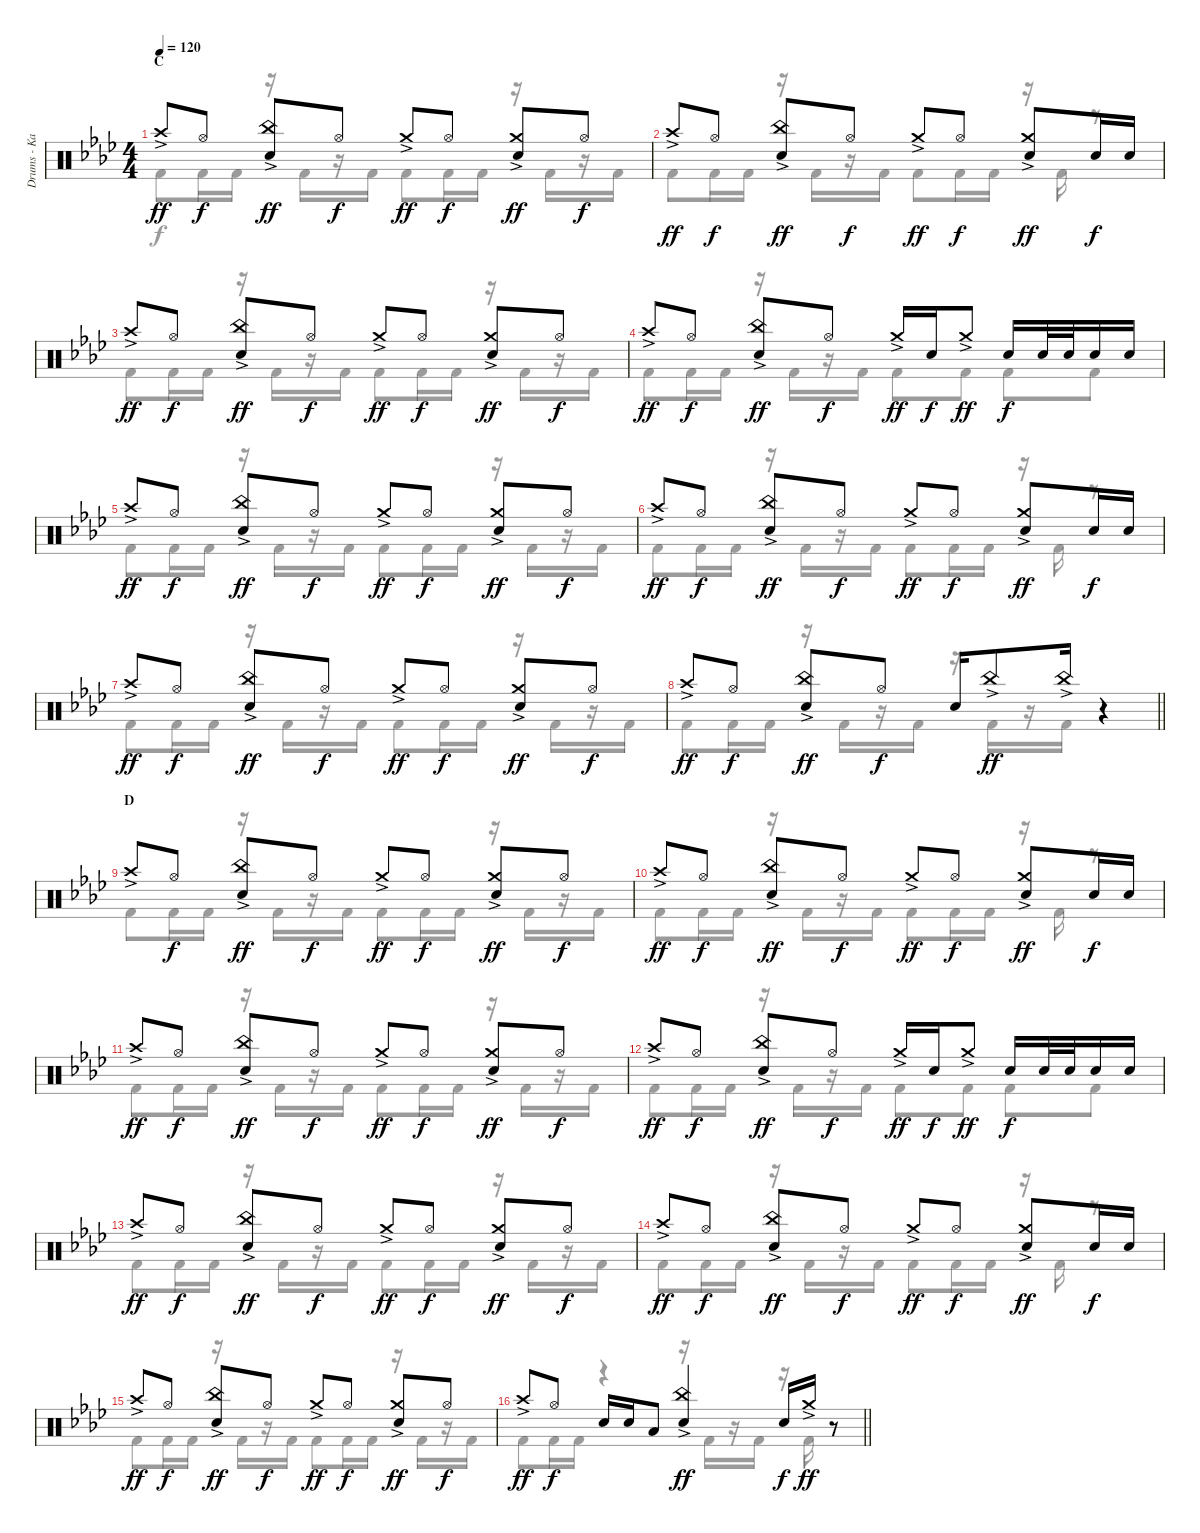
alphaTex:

\track ("Drums - Kai" "Drums - Ka") {instrument percussion}
\staff {score}
\articulation defaults
\voice
\ts (4 4)
\section ("" "C")
\tempo 120
\clef neutral
\ks ab "Crash high (hit)"{ac}.8{dy ff} "Hi-Hat (open)".8{dy f}
("China (hit)"{ac} "Snare (hit) 2").8{dy ff} "Hi-Hat (open)".8{dy f} "Crash medium (hit)"{ac}.8{dy ff} "Hi-Hat (open)".8{dy f} ("Crash medium (hit)"{ac} "Snare (hit) 2").8{dy ff} "Hi-Hat (open)".8{dy f} |
"Crash high (hit)"{ac}.8{dy ff} "Hi-Hat (open)".8{dy f} ("China (hit)"{ac} "Snare (hit) 2").8{dy ff} "Hi-Hat (open)".8{dy f} "Crash medium (hit)"{ac}.8{dy ff} "Hi-Hat (open)".8{dy f} ("Crash medium (hit)"{ac} "Snare (hit) 2").8{dy ff} "Snare (hit) 2".16{dy f} "Snare (hit) 2".16 |
"Crash high (hit)"{ac}.8{dy ff} "Hi-Hat (open)".8{dy f} ("China (hit)"{ac} "Snare (hit) 2").8{dy ff} "Hi-Hat (open)".8{dy f} "Crash medium (hit)"{ac}.8{dy ff} "Hi-Hat (open)".8{dy f} ("Crash medium (hit)"{ac} "Snare (hit) 2").8{dy ff} "Hi-Hat (open)".8{dy f} |
"Crash high (hit)"{ac}.8{dy ff} "Hi-Hat (open)".8{dy f} ("China (hit)"{ac} "Snare (hit) 2").8{dy ff} "Hi-Hat (open)".8{dy f} "Crash medium (hit)"{ac}.16{dy ff} "Snare (hit) 2".16{dy f} "Crash medium (hit)"{ac}.8{dy ff} "Snare (hit) 2".16{dy f} "Snare (hit) 2".32 "Snare (hit) 2".32 "Snare (hit) 2".16 "Snare (hit) 2".16 |
"Crash high (hit)"{ac}.8{dy ff} "Hi-Hat (open)".8{dy f} ("China (hit)"{ac} "Snare (hit) 2").8{dy ff} "Hi-Hat (open)".8{dy f} "Crash medium (hit)"{ac}.8{dy ff} "Hi-Hat (open)".8{dy f} ("Crash medium (hit)"{ac} "Snare (hit) 2").8{dy ff} "Hi-Hat (open)".8{dy f} |
"Crash high (hit)"{ac}.8{dy ff} "Hi-Hat (open)".8{dy f} ("China (hit)"{ac} "Snare (hit) 2").8{dy ff} "Hi-Hat (open)".8{dy f} "Crash medium (hit)"{ac}.8{dy ff} "Hi-Hat (open)".8{dy f} ("Crash medium (hit)"{ac} "Snare (hit) 2").8{dy ff} "Snare (hit) 2".16{dy f} "Snare (hit) 2".16 |
"Crash high (hit)"{ac}.8{dy ff} "Hi-Hat (open)".8{dy f} ("China (hit)"{ac} "Snare (hit) 2").8{dy ff} "Hi-Hat (open)".8{dy f} "Crash medium (hit)"{ac}.8{dy ff} "Hi-Hat (open)".8{dy f} ("Crash medium (hit)"{ac} "Snare (hit) 2").8{dy ff} "Hi-Hat (open)".8{dy f} |
\barLineRight lightlight "Crash high (hit)"{ac}.8{dy ff} "Hi-Hat (open)".8{dy f}
("China (hit)"{ac} "Snare (hit) 2").8{dy ff} "Hi-Hat (open)".8{dy f} "Snare (hit) 2".16 "China (hit)"{ac}.8{dy ff} "China (hit)"{ac}.16 r.4 |
\section ("" "D")
"Crash high (hit)"{ac}.8 "Hi-Hat (open)".8{dy f} ("China (hit)"{ac} "Snare (hit) 2").8{dy ff} "Hi-Hat (open)".8{dy f} "Crash medium (hit)"{ac}.8{dy ff} "Hi-Hat (open)".8{dy f} ("Crash medium (hit)"{ac} "Snare (hit) 2").8{dy ff} "Hi-Hat (open)".8{dy f} |
"Crash high (hit)"{ac}.8{dy ff} "Hi-Hat (open)".8{dy f} ("China (hit)"{ac} "Snare (hit) 2").8{dy ff} "Hi-Hat (open)".8{dy f} "Crash medium (hit)"{ac}.8{dy ff} "Hi-Hat (open)".8{dy f} ("Crash medium (hit)"{ac} "Snare (hit) 2").8{dy ff} "Snare (hit) 2".16{dy f} "Snare (hit) 2".16 |
"Crash high (hit)"{ac}.8{dy ff} "Hi-Hat (open)".8{dy f} ("China (hit)"{ac} "Snare (hit) 2").8{dy ff} "Hi-Hat (open)".8{dy f} "Crash medium (hit)"{ac}.8{dy ff} "Hi-Hat (open)".8{dy f} ("Crash medium (hit)"{ac} "Snare (hit) 2").8{dy ff} "Hi-Hat (open)".8{dy f} |
"Crash high (hit)"{ac}.8{dy ff} "Hi-Hat (open)".8{dy f} ("China (hit)"{ac} "Snare (hit) 2").8{dy ff} "Hi-Hat (open)".8{dy f} "Crash medium (hit)"{ac}.16{dy ff} "Snare (hit) 2".16{dy f} "Crash medium (hit)"{ac}.8{dy ff} "Snare (hit) 2".16{dy f} "Snare (hit) 2".32 "Snare (hit) 2".32 "Snare (hit) 2".16 "Snare (hit) 2".16 |
"Crash high (hit)"{ac}.8{dy ff} "Hi-Hat (open)".8{dy f} ("China (hit)"{ac} "Snare (hit) 2").8{dy ff} "Hi-Hat (open)".8{dy f} "Crash medium (hit)"{ac}.8{dy ff} "Hi-Hat (open)".8{dy f} ("Crash medium (hit)"{ac} "Snare (hit) 2").8{dy ff} "Hi-Hat (open)".8{dy f} |
"Crash high (hit)"{ac}.8{dy ff} "Hi-Hat (open)".8{dy f} ("China (hit)"{ac} "Snare (hit) 2").8{dy ff} "Hi-Hat (open)".8{dy f} "Crash medium (hit)"{ac}.8{dy ff} "Hi-Hat (open)".8{dy f} ("Crash medium (hit)"{ac} "Snare (hit) 2").8{dy ff} "Snare (hit) 2".16{dy f} "Snare (hit) 2".16 |
"Crash high (hit)"{ac}.8{dy ff} "Hi-Hat (open)".8{dy f} ("China (hit)"{ac} "Snare (hit) 2").8{dy ff} "Hi-Hat (open)".8{dy f} "Crash medium (hit)"{ac}.8{dy ff} "Hi-Hat (open)".8{dy f} ("Crash medium (hit)"{ac} "Snare (hit) 2").8{dy ff} "Hi-Hat (open)".8{dy f} |
\barLineRight lightlight "Crash high (hit)"{ac}.8{dy ff} "Hi-Hat (open)".8{dy f} "Snare (hit) 2".16 "Snare (hit) 2".16 "Low Tom (hit)".8
("China (hit)"{ac} "Snare (hit) 2").4{dy ff} "Snare (hit) 2".16{dy f} "Crash medium (hit)"{ac}.16{dy ff} r.8
\voice
\clef neutral
\ottava regular
\simile none
\ks ab "Kick (hit) 2".8{dy f} "Kick (hit) 2".16 "Kick (hit) 2".16
r.16 "Kick (hit) 2".16 r.16 "Kick (hit) 2".16 "Kick (hit) 2".8 "Kick (hit) 2".16 "Kick (hit) 2".16 r.16 "Kick (hit) 2".16 r.16 "Kick (hit) 2".16 |
"Kick (hit) 2".8 "Kick (hit) 2".16 "Kick (hit) 2".16 r.16 "Kick (hit) 2".16 r.16 "Kick (hit) 2".16 "Kick (hit) 2".8 "Kick (hit) 2".16 "Kick (hit) 2".16 r.16 "Kick (hit) 2".16 r.8 |
"Kick (hit) 2".8 "Kick (hit) 2".16 "Kick (hit) 2".16 r.16 "Kick (hit) 2".16 r.16 "Kick (hit) 2".16 "Kick (hit) 2".8 "Kick (hit) 2".16 "Kick (hit) 2".16 r.16 "Kick (hit) 2".16 r.16 "Kick (hit) 2".16 |
"Kick (hit) 2".8 "Kick (hit) 2".16 "Kick (hit) 2".16 r.16 "Kick (hit) 2".16 r.16 "Kick (hit) 2".16 "Kick (hit) 2".8 "Kick (hit) 2".8 "Kick (hit) 2".8 "Kick (hit) 2".8 |
"Kick (hit) 2".8 "Kick (hit) 2".16 "Kick (hit) 2".16 r.16 "Kick (hit) 2".16 r.16 "Kick (hit) 2".16 "Kick (hit) 2".8 "Kick (hit) 2".16 "Kick (hit) 2".16 r.16 "Kick (hit) 2".16 r.16 "Kick (hit) 2".16 |
"Kick (hit) 2".8 "Kick (hit) 2".16 "Kick (hit) 2".16 r.16 "Kick (hit) 2".16 r.16 "Kick (hit) 2".16 "Kick (hit) 2".8 "Kick (hit) 2".16 "Kick (hit) 2".16 r.16 "Kick (hit) 2".16 r.8 |
"Kick (hit) 2".8 "Kick (hit) 2".16 "Kick (hit) 2".16 r.16 "Kick (hit) 2".16 r.16 "Kick (hit) 2".16 "Kick (hit) 2".8 "Kick (hit) 2".16 "Kick (hit) 2".16 r.16 "Kick (hit) 2".16 r.16 "Kick (hit) 2".16 |
\barLineRight lightlight "Kick (hit) 2".8 "Kick (hit) 2".16 "Kick (hit) 2".16
r.16 "Kick (hit) 2".16 r.16 "Kick (hit) 2".16 r.16 "Kick (hit) 2".16 r.16 "Kick (hit) 2".16 r.4 |
"Kick (hit) 2".8 "Kick (hit) 2".16 "Kick (hit) 2".16 r.16 "Kick (hit) 2".16 r.16 "Kick (hit) 2".16 "Kick (hit) 2".8 "Kick (hit) 2".16 "Kick (hit) 2".16 r.16 "Kick (hit) 2".16 r.16 "Kick (hit) 2".16 |
"Kick (hit) 2".8 "Kick (hit) 2".16 "Kick (hit) 2".16 r.16 "Kick (hit) 2".16 r.16 "Kick (hit) 2".16 "Kick (hit) 2".8 "Kick (hit) 2".16 "Kick (hit) 2".16 r.16 "Kick (hit) 2".16 r.8 |
"Kick (hit) 2".8 "Kick (hit) 2".16 "Kick (hit) 2".16 r.16 "Kick (hit) 2".16 r.16 "Kick (hit) 2".16 "Kick (hit) 2".8 "Kick (hit) 2".16 "Kick (hit) 2".16 r.16 "Kick (hit) 2".16 r.16 "Kick (hit) 2".16 |
"Kick (hit) 2".8 "Kick (hit) 2".16 "Kick (hit) 2".16 r.16 "Kick (hit) 2".16 r.16 "Kick (hit) 2".16 "Kick (hit) 2".8 "Kick (hit) 2".8 "Kick (hit) 2".8 "Kick (hit) 2".8 |
"Kick (hit) 2".8 "Kick (hit) 2".16 "Kick (hit) 2".16 r.16 "Kick (hit) 2".16 r.16 "Kick (hit) 2".16 "Kick (hit) 2".8 "Kick (hit) 2".16 "Kick (hit) 2".16 r.16 "Kick (hit) 2".16 r.16 "Kick (hit) 2".16 |
"Kick (hit) 2".8 "Kick (hit) 2".16 "Kick (hit) 2".16 r.16 "Kick (hit) 2".16 r.16 "Kick (hit) 2".16 "Kick (hit) 2".8 "Kick (hit) 2".16 "Kick (hit) 2".16 r.16 "Kick (hit) 2".16 r.8 |
"Kick (hit) 2".8 "Kick (hit) 2".16 "Kick (hit) 2".16 r.16 "Kick (hit) 2".16 r.16 "Kick (hit) 2".16 "Kick (hit) 2".8 "Kick (hit) 2".16 "Kick (hit) 2".16 r.16 "Kick (hit) 2".16 r.16 "Kick (hit) 2".16 |
\barLineRight lightlight "Kick (hit) 2".8 "Kick (hit) 2".16 "Kick (hit) 2".16
r.4 r.16 "Kick (hit) 2".16 r.16 "Kick (hit) 2".16 r.16 "Kick (hit) 2".16 r.8
